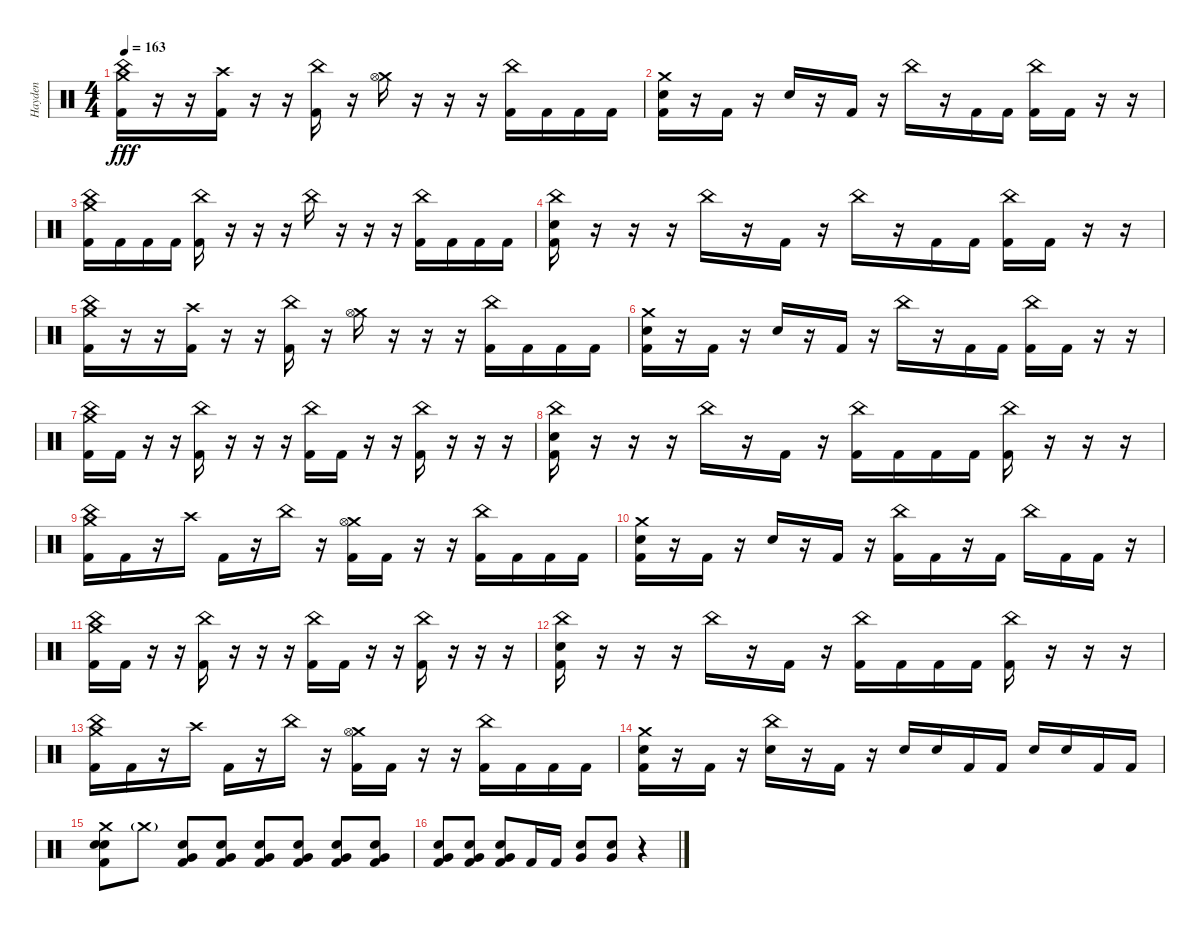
\track ("Hayden" "Hayden") {instrument percussion}
\staff {score}
\articulation defaults
\ts (4 4)
\tempo 163
\clef neutral
\ks c
("Crash medium (hit)" "China (hit)" "Kick (hit) 2").16{dy fff} r.16 r.16 ("Crash high (hit)" "Kick (hit) 2").16 r.16 r.16 ("China (hit)" "Kick (hit) 2").16 r.16 ("Crash medium (hit)" "Hi-Hat (open)").16 r.16 r.16 r.16 ("China (hit)" "Kick (hit) 2").16 "Kick (hit) 2".16 "Kick (hit) 2".16 "Kick (hit) 2".16 |
("Crash medium (hit)" "Electric Snare (hit)" "Kick (hit) 2").16 r.16 "Kick (hit) 2".16 r.16 "Electric Snare (hit)".16 r.16 "Kick (hit) 2".16 r.16 "China (hit)".16 r.16 "Kick (hit) 2".16 "Kick (hit) 2".16 ("China (hit)" "Kick (hit) 2").16 "Kick (hit) 2".16 r.16 r.16 |
("Crash medium (hit)" "China (hit)" "Kick (hit) 2").16 "Kick (hit) 2".16 "Kick (hit) 2".16 "Kick (hit) 2".16 ("China (hit)" "Kick (hit) 2").16 r.16 r.16 r.16 "China (hit)".16 r.16 r.16 r.16 ("China (hit)" "Kick (hit) 2").16 "Kick (hit) 2".16 "Kick (hit) 2".16 "Kick (hit) 2".16 |
("China (hit)" "Electric Snare (hit)" "Kick (hit) 2").16 r.16 r.16 r.16 "China (hit)".16 r.16 "Kick (hit) 2".16 r.16 "China (hit)".16 r.16 "Kick (hit) 2".16 "Kick (hit) 2".16 ("China (hit)" "Kick (hit) 2").16 "Kick (hit) 2".16 r.16 r.16 |
("Crash medium (hit)" "China (hit)" "Kick (hit) 2").16 r.16 r.16 ("Crash high (hit)" "Kick (hit) 2").16 r.16 r.16 ("China (hit)" "Kick (hit) 2").16 r.16 ("Crash medium (hit)" "Hi-Hat (open)").16 r.16 r.16 r.16 ("China (hit)" "Kick (hit) 2").16 "Kick (hit) 2".16 "Kick (hit) 2".16 "Kick (hit) 2".16 |
("Crash medium (hit)" "Electric Snare (hit)" "Kick (hit) 2").16 r.16 "Kick (hit) 2".16 r.16 "Electric Snare (hit)".16 r.16 "Kick (hit) 2".16 r.16 "China (hit)".16 r.16 "Kick (hit) 2".16 "Kick (hit) 2".16 ("China (hit)" "Kick (hit) 2").16 "Kick (hit) 2".16 r.16 r.16 |
("Crash medium (hit)" "China (hit)" "Kick (hit) 2").16 "Kick (hit) 2".16 r.16 r.16 ("China (hit)" "Kick (hit) 2").16 r.16 r.16 r.16 ("China (hit)" "Kick (hit) 2").16 "Kick (hit) 2".16 r.16 r.16 ("China (hit)" "Kick (hit) 2").16 r.16 r.16 r.16 |
("China (hit)" "Snare (hit) 2" "Kick (hit) 2").16 r.16 r.16 r.16 "China (hit)".16 r.16 "Kick (hit) 2".16 r.16 ("China (hit)" "Kick (hit) 2").16 "Kick (hit) 2".16 "Kick (hit) 2".16 "Kick (hit) 2".16 ("China (hit)" "Kick (hit) 2").16 r.16 r.16 r.16 |
("Crash medium (hit)" "China (hit)" "Kick (hit) 2").16 "Kick (hit) 2".16 r.16 "Crash high (hit)".16 "Kick (hit) 2".16 r.16 "China (hit)".16 r.16 ("Crash medium (hit)" "Hi-Hat (open)" "Kick (hit) 2").16 "Kick (hit) 2".16 r.16 r.16 ("China (hit)" "Kick (hit) 2").16 "Kick (hit) 2".16 "Kick (hit) 2".16 "Kick (hit) 2".16 |
("Crash medium (hit)" "Snare (hit) 2" "Kick (hit) 2").16 r.16 "Kick (hit) 2".16 r.16 "Electric Snare (hit)".16 r.16 "Kick (hit) 2".16 r.16 ("China (hit)" "Kick (hit) 2").16 "Kick (hit) 2".16 r.16 "Kick (hit) 2".16 "China (hit)".16 "Kick (hit) 2".16 "Kick (hit) 2".16 r.16 |
("Crash medium (hit)" "China (hit)" "Kick (hit) 2").16 "Kick (hit) 2".16 r.16 r.16 ("China (hit)" "Kick (hit) 2").16 r.16 r.16 r.16 ("China (hit)" "Kick (hit) 2").16 "Kick (hit) 2".16 r.16 r.16 ("China (hit)" "Kick (hit) 2").16 r.16 r.16 r.16 |
("China (hit)" "Snare (hit) 2" "Kick (hit) 2").16 r.16 r.16 r.16 "China (hit)".16 r.16 "Kick (hit) 2".16 r.16 ("China (hit)" "Kick (hit) 2").16 "Kick (hit) 2".16 "Kick (hit) 2".16 "Kick (hit) 2".16 ("China (hit)" "Kick (hit) 2").16 r.16 r.16 r.16 |
("Crash medium (hit)" "China (hit)" "Kick (hit) 2").16 "Kick (hit) 2".16 r.16 "Crash high (hit)".16 "Kick (hit) 2".16 r.16 "China (hit)".16 r.16 ("Crash medium (hit)" "Hi-Hat (open)" "Kick (hit) 2").16 "Kick (hit) 2".16 r.16 r.16 ("China (hit)" "Kick (hit) 2").16 "Kick (hit) 2".16 "Kick (hit) 2".16 "Kick (hit) 2".16 |
("Crash medium (hit)" "Electric Snare (hit)" "Kick (hit) 2").16 r.16 "Kick (hit) 2".16 r.16 ("China (hit)" "Electric Snare (hit)").16 r.16 "Kick (hit) 2".16 r.16 "Electric Snare (hit)".16 "Electric Snare (hit)".16 "Kick (hit) 2".16 "Kick (hit) 2".16 "Electric Snare (hit)".16 "Electric Snare (hit)".16 "Kick (hit) 2".16 "Kick (hit) 2".16 |
("Crash medium (hit)" "Snare (hit) 2" "Electric Snare (hit)" "Kick (hit) 2").8 "Crash medium (hit)"{g}.8 ("Very Low Tom (hit)" "Electric Snare (hit)" "Kick (hit) 2").8 ("Very Low Tom (hit)" "Electric Snare (hit)" "Kick (hit) 2").8 ("Very Low Tom (hit)" "Electric Snare (hit)" "Kick (hit) 2").8 ("Very Low Tom (hit)" "Electric Snare (hit)" "Kick (hit) 2").8 ("Very Low Tom (hit)" "Electric Snare (hit)" "Kick (hit) 2").8 ("Very Low Tom (hit)" "Electric Snare (hit)" "Kick (hit) 2").8 |
("Very Low Tom (hit)" "Electric Snare (hit)" "Kick (hit) 2").8 ("Very Low Tom (hit)" "Electric Snare (hit)" "Kick (hit) 2").8 ("Very Low Tom (hit)" "Electric Snare (hit)" "Kick (hit) 2").8 "Kick (hit) 2".16 "Kick (hit) 2".16 ("Snare (hit) 2" "Very Low Tom (hit)").8 ("Snare (hit) 2" "Very Low Tom (hit)").8 r.4
